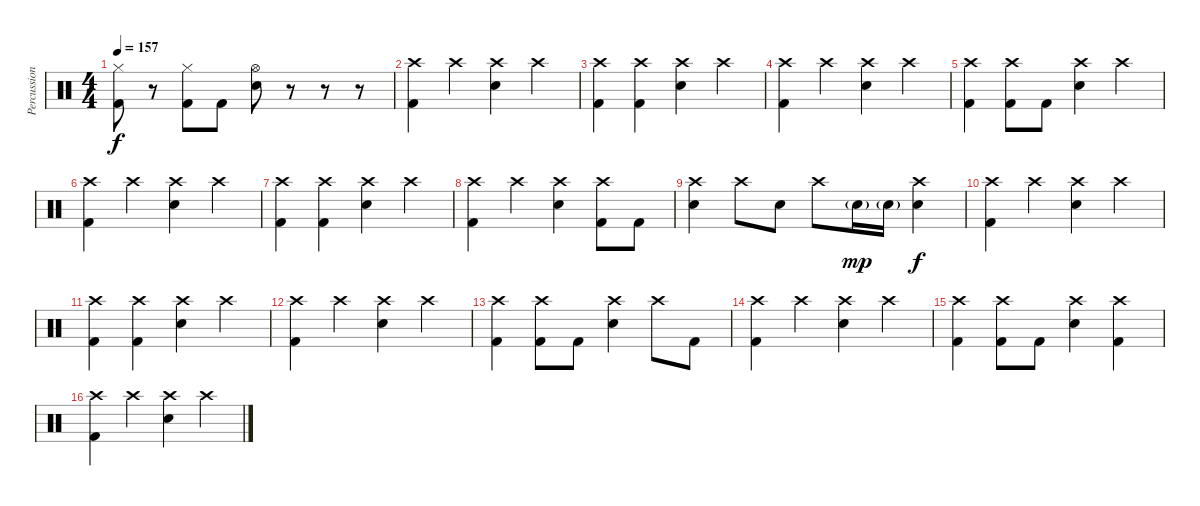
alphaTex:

\track ("Percussion" "Percussion") {instrument percussion}
\staff {score}
\articulation defaults
\ts (4 4)
\tempo 157
\clef neutral
\ks c
("Hi-Hat (closed)" "Kick (hit) 2").8{dy f} r.8 ("Hi-Hat (closed)" "Kick (hit) 2").8 "Kick (hit) 2".8 ("Hi-Hat (open)" "Snare (hit) 2").8 r.8 r.8 r.8 |
("Crash high (hit)" "Kick (hit) 2").4 "Crash high (hit)".4 ("Crash high (hit)" "Snare (hit) 2").4 "Crash high (hit)".4 |
("Crash high (hit)" "Kick (hit) 2").4 ("Crash high (hit)" "Kick (hit) 2").4 ("Crash high (hit)" "Snare (hit) 2").4 "Crash high (hit)".4 |
("Crash high (hit)" "Kick (hit) 2").4 "Crash high (hit)".4 ("Crash high (hit)" "Snare (hit) 2").4 "Crash high (hit)".4 |
("Crash high (hit)" "Kick (hit) 2").4 ("Crash high (hit)" "Kick (hit) 2").8 "Kick (hit) 2".8 ("Crash high (hit)" "Snare (hit) 2").4 "Crash high (hit)".4 |
("Crash high (hit)" "Kick (hit) 2").4 "Crash high (hit)".4 ("Crash high (hit)" "Snare (hit) 2").4 "Crash high (hit)".4 |
("Crash high (hit)" "Kick (hit) 2").4 ("Crash high (hit)" "Kick (hit) 2").4 ("Crash high (hit)" "Snare (hit) 2").4 "Crash high (hit)".4 |
("Crash high (hit)" "Kick (hit) 2").4 "Crash high (hit)".4 ("Crash high (hit)" "Snare (hit) 2").4 ("Crash high (hit)" "Kick (hit) 2").8 "Kick (hit) 2".8 |
("Crash high (hit)" "Snare (hit) 2").4 "Crash high (hit)".8 "Snare (hit) 2".8 "Crash high (hit)".8 "Snare (hit) 2"{g}.16{dy mp} "Snare (hit) 2"{g}.16 ("Crash high (hit)" "Snare (hit) 2").4{dy f} |
("Crash high (hit)" "Kick (hit) 2").4 "Crash high (hit)".4 ("Crash high (hit)" "Snare (hit) 2").4 "Crash high (hit)".4 |
("Crash high (hit)" "Kick (hit) 2").4 ("Crash high (hit)" "Kick (hit) 2").4 ("Crash high (hit)" "Snare (hit) 2").4 "Crash high (hit)".4 |
("Crash high (hit)" "Kick (hit) 2").4 "Crash high (hit)".4 ("Crash high (hit)" "Snare (hit) 2").4 "Crash high (hit)".4 |
("Crash high (hit)" "Kick (hit) 2").4 ("Crash high (hit)" "Kick (hit) 2").8 "Kick (hit) 2".8 ("Crash high (hit)" "Snare (hit) 2").4 "Crash high (hit)".8 "Kick (hit) 2".8 |
("Crash high (hit)" "Kick (hit) 2").4 "Crash high (hit)".4 ("Crash high (hit)" "Snare (hit) 2").4 "Crash high (hit)".4 |
("Crash high (hit)" "Kick (hit) 2").4 ("Crash high (hit)" "Kick (hit) 2").8 "Kick (hit) 2".8 ("Crash high (hit)" "Snare (hit) 2").4 ("Crash high (hit)" "Kick (hit) 2").4 |
("Crash high (hit)" "Kick (hit) 2").4 "Crash high (hit)".4 ("Crash high (hit)" "Snare (hit) 2").4 "Crash high (hit)".4
